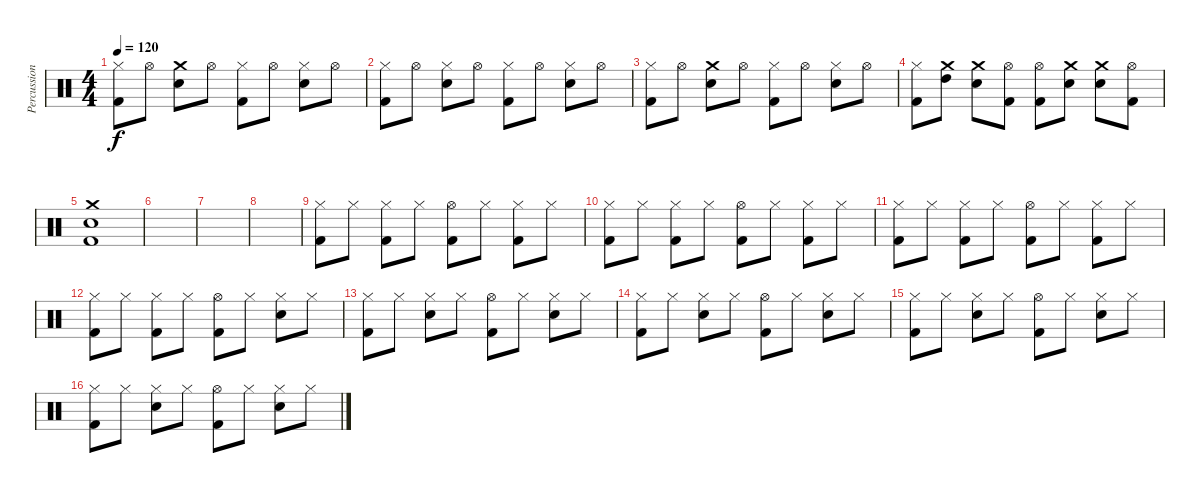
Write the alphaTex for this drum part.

\track ("Percussion" "Percussion") {instrument percussion}
\staff {score}
\articulation defaults
\ts (4 4)
\tempo 120
\clef neutral
\ks c
("Hi-Hat (closed)" "Kick (hit) 2").8{dy f} "Hi-Hat (open)".8 ("Crash medium (hit)" "Snare (hit) 2").8 "Hi-Hat (open)".8 ("Hi-Hat (closed)" "Kick (hit) 2").8 "Hi-Hat (open)".8 ("Hi-Hat (closed)" "Snare (hit) 2").8 "Hi-Hat (open)".8 |
("Hi-Hat (closed)" "Kick (hit) 2").8 "Hi-Hat (open)".8 ("Hi-Hat (closed)" "Snare (hit) 2").8 "Hi-Hat (open)".8 ("Hi-Hat (closed)" "Kick (hit) 2").8 "Hi-Hat (open)".8 ("Hi-Hat (closed)" "Snare (hit) 2").8 "Hi-Hat (open)".8 |
("Hi-Hat (closed)" "Kick (hit) 2").8 "Hi-Hat (open)".8 ("Crash medium (hit)" "Snare (hit) 2").8 "Hi-Hat (open)".8 ("Hi-Hat (closed)" "Kick (hit) 2").8 "Hi-Hat (open)".8 ("Hi-Hat (closed)" "Snare (hit) 2").8 "Hi-Hat (open)".8 |
("Hi-Hat (closed)" "Kick (hit) 2").8 ("Crash medium (hit)" "High Tom (hit)").8 ("Crash medium (hit)" "Snare (hit) 2").8 ("Kick (hit) 2" "Hi-Hat (open)").8 ("Hi-Hat (open)" "Kick (hit) 2").8 ("Crash medium (hit)" "Snare (hit) 2").8 ("Crash medium (hit)" "Snare (hit) 2").8 ("Hi-Hat (open)" "Kick (hit) 2").8 |
("Snare (hit) 2" "Kick (hit) 2" "Crash medium (hit)").1 |
|
|
|
("Hi-Hat (closed)" "Kick (hit) 2").8 "Hi-Hat (closed)".8 ("Hi-Hat (closed)" "Kick (hit) 2").8 "Hi-Hat (closed)".8 ("Hi-Hat (open)" "Kick (hit) 2").8 "Hi-Hat (closed)".8 ("Hi-Hat (closed)" "Kick (hit) 2").8 "Hi-Hat (closed)".8 |
("Hi-Hat (closed)" "Kick (hit) 2").8 "Hi-Hat (closed)".8 ("Hi-Hat (closed)" "Kick (hit) 2").8 "Hi-Hat (closed)".8 ("Hi-Hat (open)" "Kick (hit) 2").8 "Hi-Hat (closed)".8 ("Hi-Hat (closed)" "Kick (hit) 2").8 "Hi-Hat (closed)".8 |
("Hi-Hat (closed)" "Kick (hit) 2").8 "Hi-Hat (closed)".8 ("Hi-Hat (closed)" "Kick (hit) 2").8 "Hi-Hat (closed)".8 ("Hi-Hat (open)" "Kick (hit) 2").8 "Hi-Hat (closed)".8 ("Hi-Hat (closed)" "Kick (hit) 2").8 "Hi-Hat (closed)".8 |
("Hi-Hat (closed)" "Kick (hit) 2").8 "Hi-Hat (closed)".8 ("Hi-Hat (closed)" "Kick (hit) 2").8 "Hi-Hat (closed)".8 ("Hi-Hat (open)" "Kick (hit) 2").8 "Hi-Hat (closed)".8 ("Hi-Hat (closed)" "Snare (hit) 2").8 "Hi-Hat (closed)".8 |
("Hi-Hat (closed)" "Kick (hit) 2").8 "Hi-Hat (closed)".8 ("Hi-Hat (closed)" "Snare (hit) 2").8 "Hi-Hat (closed)".8 ("Hi-Hat (open)" "Kick (hit) 2").8 "Hi-Hat (closed)".8 ("Hi-Hat (closed)" "Snare (hit) 2").8 "Hi-Hat (closed)".8 |
("Hi-Hat (closed)" "Kick (hit) 2").8 "Hi-Hat (closed)".8 ("Hi-Hat (closed)" "Snare (hit) 2").8 "Hi-Hat (closed)".8 ("Hi-Hat (open)" "Kick (hit) 2").8 "Hi-Hat (closed)".8 ("Hi-Hat (closed)" "Snare (hit) 2").8 "Hi-Hat (closed)".8 |
("Hi-Hat (closed)" "Kick (hit) 2").8 "Hi-Hat (closed)".8 ("Hi-Hat (closed)" "Snare (hit) 2").8 "Hi-Hat (closed)".8 ("Hi-Hat (open)" "Kick (hit) 2").8 "Hi-Hat (closed)".8 ("Hi-Hat (closed)" "Snare (hit) 2").8 "Hi-Hat (closed)".8 |
("Hi-Hat (closed)" "Kick (hit) 2").8 "Hi-Hat (closed)".8 ("Hi-Hat (closed)" "Snare (hit) 2").8 "Hi-Hat (closed)".8 ("Hi-Hat (open)" "Kick (hit) 2").8 "Hi-Hat (closed)".8 ("Hi-Hat (closed)" "Snare (hit) 2").8 "Hi-Hat (closed)".8
